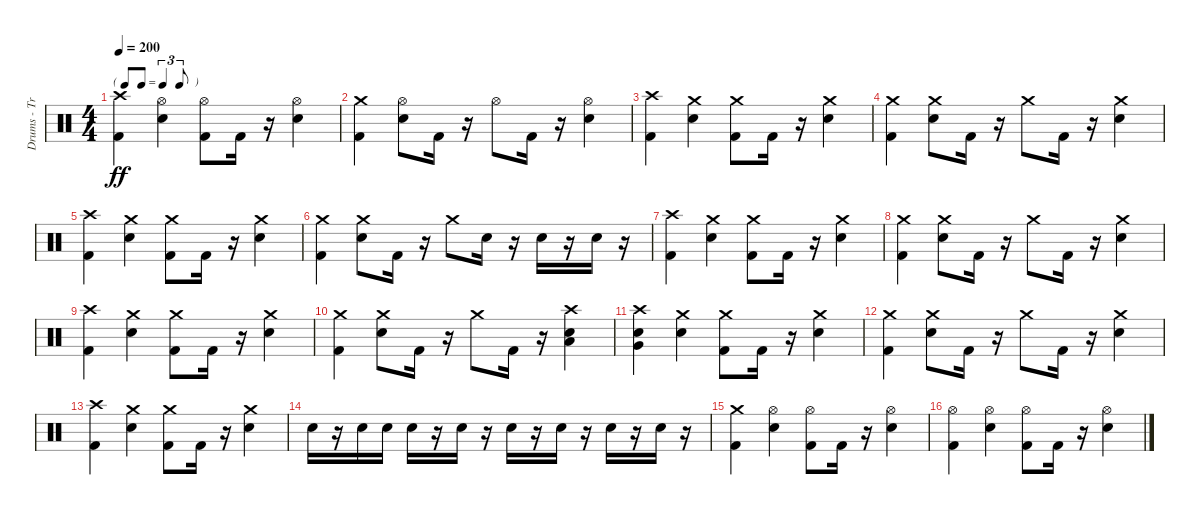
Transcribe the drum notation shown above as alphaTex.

\track ("Drums - Travis" "Drums - Tr") {instrument percussion}
\staff {score}
\articulation defaults
\ts (4 4)
\tf triplet8th
\tempo 200
\clef neutral
\ks c
("Kick (hit) 2" "Crash high (hit)").4{dy ff} ("Electric Snare (hit)" "Hi-Hat (open)").4 ("Kick (hit) 2" "Hi-Hat (open)").8 "Kick (hit) 2".16 r.16 ("Electric Snare (hit)" "Hi-Hat (open)").4 |
("Kick (hit) 2" "Crash medium (hit)").4 ("Electric Snare (hit)" "Hi-Hat (open)").8 "Kick (hit) 2".16 r.16 "Hi-Hat (open)".8 "Kick (hit) 2".16 r.16 ("Electric Snare (hit)" "Hi-Hat (open)").4 |
("Kick (hit) 2" "Crash high (hit)").4 ("Electric Snare (hit)" "Crash medium (hit)").4 ("Kick (hit) 2" "Crash medium (hit)").8 "Kick (hit) 2".16 r.16 ("Electric Snare (hit)" "Crash medium (hit)").4 |
("Kick (hit) 2" "Crash medium (hit)").4 ("Electric Snare (hit)" "Crash medium (hit)").8 "Kick (hit) 2".16 r.16 "Crash medium (hit)".8 "Kick (hit) 2".16 r.16 ("Electric Snare (hit)" "Crash medium (hit)").4 |
("Kick (hit) 2" "Crash high (hit)").4 ("Electric Snare (hit)" "Crash medium (hit)").4 ("Kick (hit) 2" "Crash medium (hit)").8 "Kick (hit) 2".16 r.16 ("Electric Snare (hit)" "Crash medium (hit)").4 |
("Kick (hit) 2" "Crash medium (hit)").4 ("Electric Snare (hit)" "Crash medium (hit)").8 "Kick (hit) 2".16 r.16 "Crash medium (hit)".8 "Electric Snare (hit)".16 r.16 "Electric Snare (hit)".16 r.16 "Electric Snare (hit)".16 r.16 |
("Kick (hit) 2" "Crash high (hit)").4 ("Electric Snare (hit)" "Crash medium (hit)").4 ("Kick (hit) 2" "Crash medium (hit)").8 "Kick (hit) 2".16 r.16 ("Electric Snare (hit)" "Crash medium (hit)").4 |
("Kick (hit) 2" "Crash medium (hit)").4 ("Electric Snare (hit)" "Crash medium (hit)").8 "Kick (hit) 2".16 r.16 "Crash medium (hit)".8 "Kick (hit) 2".16 r.16 ("Electric Snare (hit)" "Crash medium (hit)").4 |
("Kick (hit) 2" "Crash high (hit)").4 ("Electric Snare (hit)" "Crash medium (hit)").4 ("Kick (hit) 2" "Crash medium (hit)").8 "Kick (hit) 2".16 r.16 ("Electric Snare (hit)" "Crash medium (hit)").4 |
("Kick (hit) 2" "Crash medium (hit)").4 ("Electric Snare (hit)" "Crash medium (hit)").8 "Kick (hit) 2".16 r.16 "Crash medium (hit)".8 "Kick (hit) 2".16 r.16 ("Crash high (hit)" "Electric Snare (hit)" "Low Tom (hit)").4 |
("Electric Snare (hit)" "Very Low Tom (hit)" "Crash high (hit)").4 ("Crash medium (hit)" "Electric Snare (hit)").4 ("Crash medium (hit)" "Kick (hit) 2").8 "Kick (hit) 2".16 r.16 ("Crash medium (hit)" "Electric Snare (hit)").4 |
("Crash medium (hit)" "Kick (hit) 2").4 ("Crash medium (hit)" "Electric Snare (hit)").8 "Kick (hit) 2".16 r.16 "Crash medium (hit)".8 "Kick (hit) 2".16 r.16 ("Electric Snare (hit)" "Crash medium (hit)").4 |
("Kick (hit) 2" "Crash high (hit)").4 ("Electric Snare (hit)" "Crash medium (hit)").4 ("Kick (hit) 2" "Crash medium (hit)").8 "Kick (hit) 2".16 r.16 ("Electric Snare (hit)" "Crash medium (hit)").4 |
"Electric Snare (hit)".16 r.16 "Electric Snare (hit)".16 "Electric Snare (hit)".16 "Electric Snare (hit)".16 r.16 "Electric Snare (hit)".16 r.16 "Electric Snare (hit)".16 r.16 "Electric Snare (hit)".16 r.16 "Electric Snare (hit)".16 r.16 "Electric Snare (hit)".16 r.16 |
("Kick (hit) 2" "Crash medium (hit)").4 ("Electric Snare (hit)" "Hi-Hat (open)").4 ("Kick (hit) 2" "Hi-Hat (open)").8 "Kick (hit) 2".16 r.16 ("Electric Snare (hit)" "Hi-Hat (open)").4 |
("Hi-Hat (open)" "Kick (hit) 2").4 ("Hi-Hat (open)" "Electric Snare (hit)").4 ("Hi-Hat (open)" "Kick (hit) 2").8 "Kick (hit) 2".16 r.16 ("Hi-Hat (open)" "Electric Snare (hit)").4
